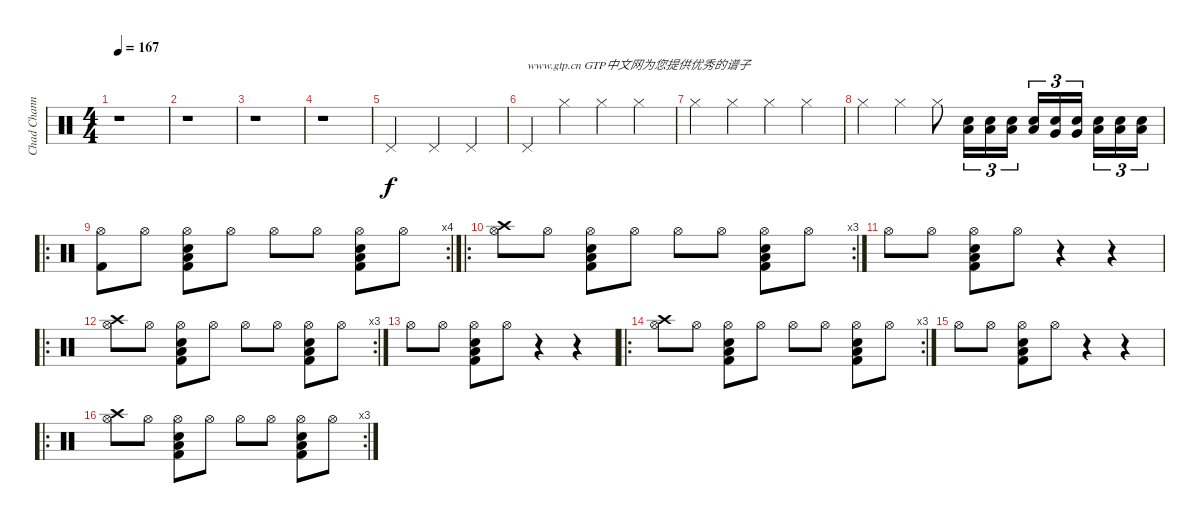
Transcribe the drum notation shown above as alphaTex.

\track ("Chad Channing" "Chad Chann") {instrument percussion}
\staff {score}
\articulation defaults
\ts (4 4)
\tempo 167
\clef neutral
\ks c
r.1{dy f} |
r.1 |
r.1 |
r.1 |
"Pedal Hi-Hat (hit)".2 "Pedal Hi-Hat (hit)".4 "Pedal Hi-Hat (hit)".4 |
"Pedal Hi-Hat (hit)".4{txt "www.gtp.cn GTP中文网为您提供优秀的谱子"} "Hi-Hat (closed)".4 "Hi-Hat (closed)".4 "Hi-Hat (closed)".4 |
"Hi-Hat (closed)".4 "Hi-Hat (closed)".4 "Hi-Hat (closed)".4 "Hi-Hat (closed)".4 |
"Hi-Hat (closed)".4 "Hi-Hat (closed)".4 "Hi-Hat (closed)".8 ("Low Tom (hit)" "Snare (hit) 2").16{tu (3 2)} ("Low Tom (hit)" "Snare (hit) 2").16{tu (3 2)} ("Low Tom (hit)" "Snare (hit) 2").16{tu (3 2)} ("Low Tom (hit)" "Snare (hit) 2").16{tu (3 2)} ("Very Low Tom (hit)" "Snare (hit) 2").16{tu (3 2)} ("Very Low Tom (hit)" "Snare (hit) 2").16{tu (3 2)} ("Low Floor Tom (hit)" "Snare (hit) 2").16{tu (3 2)} ("Low Tom (hit)" "Snare (hit) 2").16{tu (3 2)} ("Low Tom (hit)" "Snare (hit) 2").16{tu (3 2)} |
\ro
\rc 4
("Hi-Hat (open)" "Kick (hit) 2").8 "Hi-Hat (open)".8 ("Snare (hit) 2" "Hi-Hat (open)" "Low Tom (hit)" "Kick (hit) 2").8 "Hi-Hat (open)".8 "Hi-Hat (open)".8 "Hi-Hat (open)".8 ("Snare (hit) 2" "Hi-Hat (open)" "Low Tom (hit)" "Kick (hit) 2").8 "Hi-Hat (open)".8 |
\ro
\rc 3
("Crash high (hit)" "Hi-Hat (open)").8 "Hi-Hat (open)".8 ("Snare (hit) 2" "Hi-Hat (open)" "Low Tom (hit)" "Kick (hit) 2").8 "Hi-Hat (open)".8 "Hi-Hat (open)".8 "Hi-Hat (open)".8 ("Snare (hit) 2" "Hi-Hat (open)" "Low Tom (hit)" "Kick (hit) 2").8 "Hi-Hat (open)".8 |
"Hi-Hat (open)".8 "Hi-Hat (open)".8 ("Snare (hit) 2" "Hi-Hat (open)" "Kick (hit) 2" "Low Tom (hit)").8 "Hi-Hat (open)".8 r.4 r.4 |
\ro
\rc 3
("Crash high (hit)" "Hi-Hat (open)").8 "Hi-Hat (open)".8 ("Snare (hit) 2" "Hi-Hat (open)" "Low Tom (hit)" "Kick (hit) 2").8 "Hi-Hat (open)".8 "Hi-Hat (open)".8 "Hi-Hat (open)".8 ("Snare (hit) 2" "Hi-Hat (open)" "Low Tom (hit)" "Kick (hit) 2").8 "Hi-Hat (open)".8 |
"Hi-Hat (open)".8 "Hi-Hat (open)".8 ("Snare (hit) 2" "Hi-Hat (open)" "Kick (hit) 2" "Low Tom (hit)").8 "Hi-Hat (open)".8 r.4 r.4 |
\ro
\rc 3
("Crash high (hit)" "Hi-Hat (open)").8 "Hi-Hat (open)".8 ("Snare (hit) 2" "Hi-Hat (open)" "Low Tom (hit)" "Kick (hit) 2").8 "Hi-Hat (open)".8 "Hi-Hat (open)".8 "Hi-Hat (open)".8 ("Snare (hit) 2" "Hi-Hat (open)" "Low Tom (hit)" "Kick (hit) 2").8 "Hi-Hat (open)".8 |
"Hi-Hat (open)".8 "Hi-Hat (open)".8 ("Snare (hit) 2" "Hi-Hat (open)" "Kick (hit) 2" "Low Tom (hit)").8 "Hi-Hat (open)".8 r.4 r.4 |
\ro
\rc 3
("Crash high (hit)" "Hi-Hat (open)").8 "Hi-Hat (open)".8 ("Snare (hit) 2" "Hi-Hat (open)" "Low Tom (hit)" "Kick (hit) 2").8 "Hi-Hat (open)".8 "Hi-Hat (open)".8 "Hi-Hat (open)".8 ("Snare (hit) 2" "Hi-Hat (open)" "Low Tom (hit)" "Kick (hit) 2").8 "Hi-Hat (open)".8
